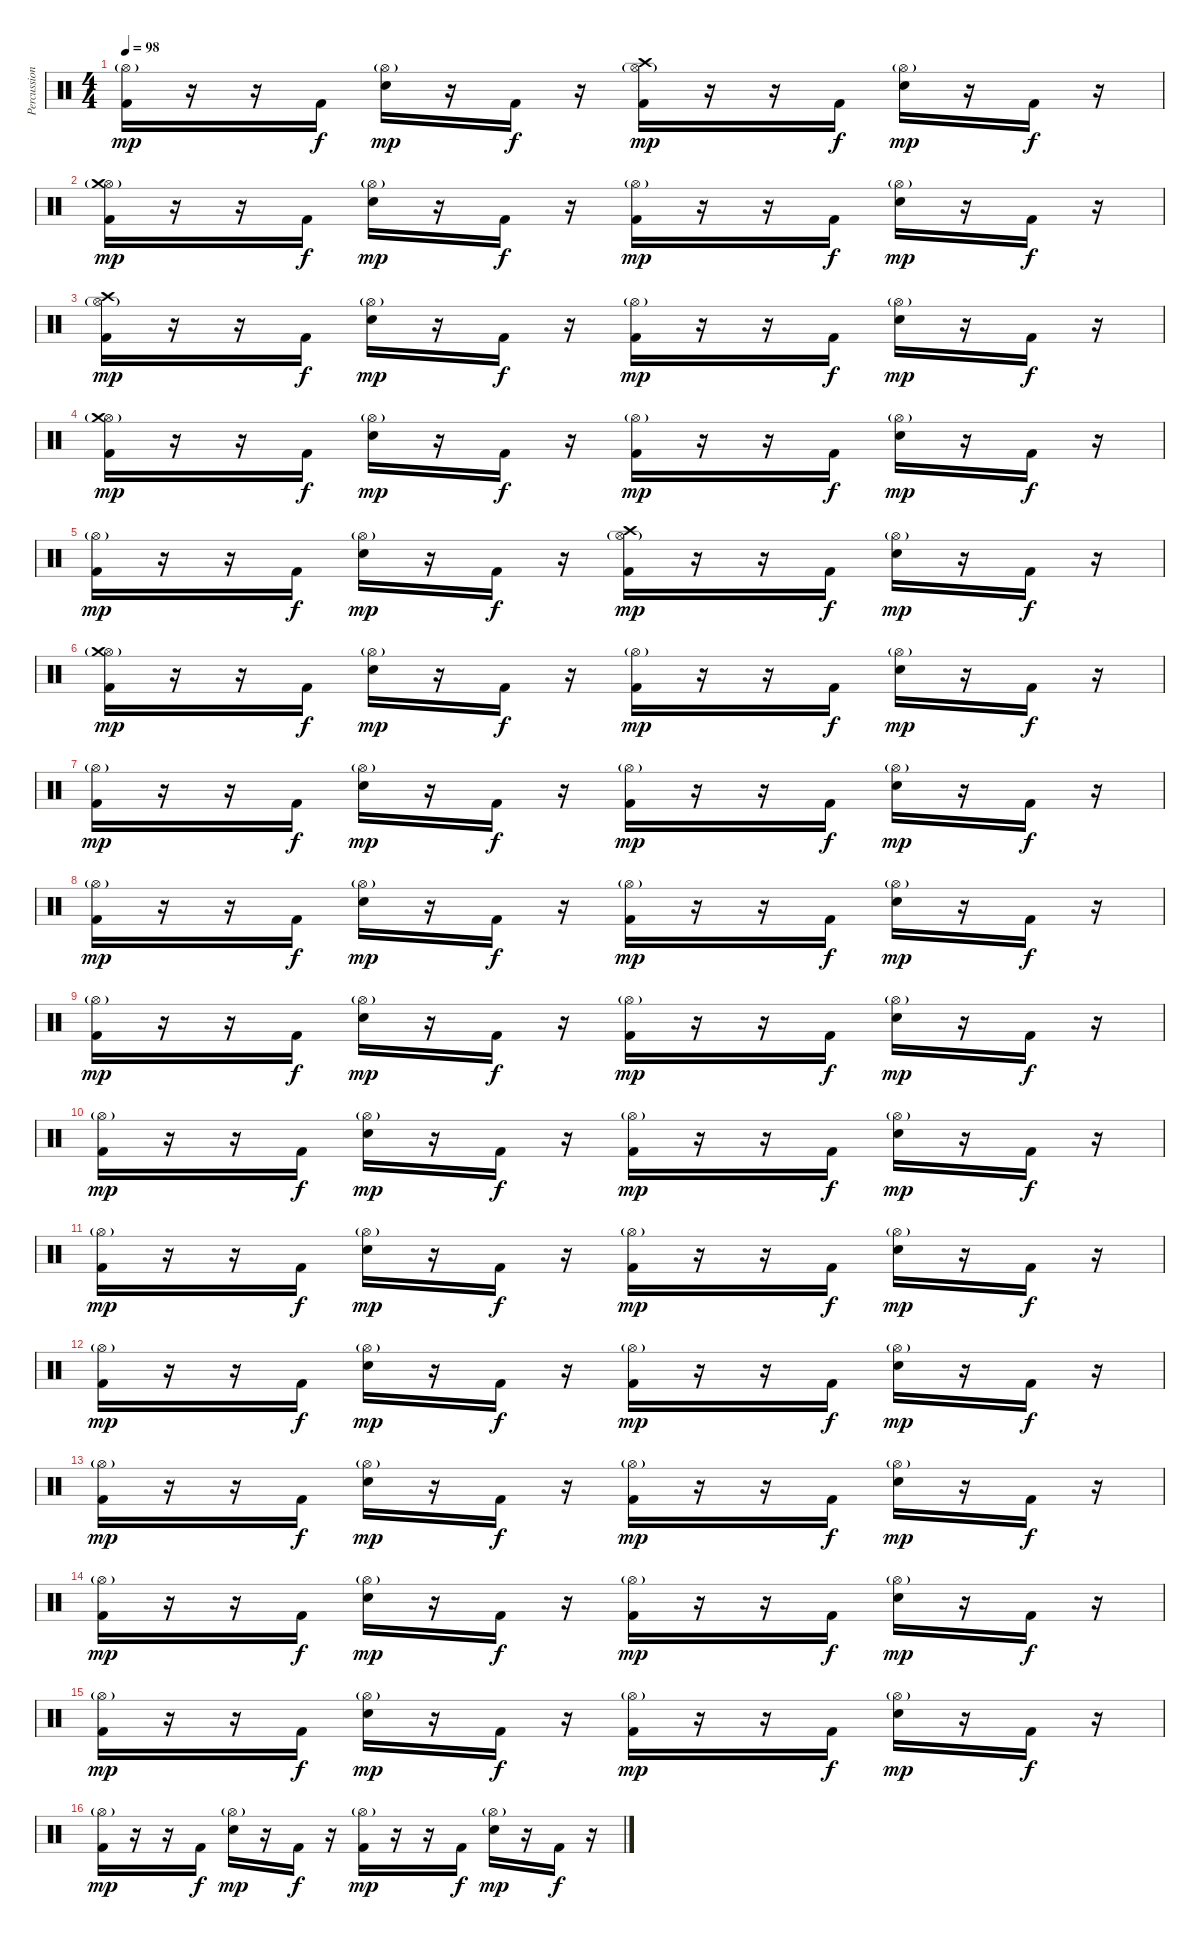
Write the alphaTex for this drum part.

\track ("Percussions" "Percussion") {instrument percussion}
\staff {score}
\articulation defaults
\ts (4 4)
\tempo 98
\clef neutral
\ks c
("Hi-Hat (open)"{g} "Kick (hit) 2").16{dy mp} r.16 r.16 "Kick (hit) 2".16{dy f} ("Hi-Hat (open)"{g} "Snare (hit) 2").16{dy mp} r.16 "Kick (hit) 2".16{dy f} r.16 ("Hi-Hat (open)"{g} "Crash high (hit)" "Kick (hit) 2").16{dy mp} r.16 r.16 "Kick (hit) 2".16{dy f} ("Hi-Hat (open)"{g} "Snare (hit) 2").16{dy mp} r.16 "Kick (hit) 2".16{dy f} r.16 |
("Hi-Hat (open)"{g} "Crash medium (hit)" "Kick (hit) 2").16{dy mp} r.16 r.16 "Kick (hit) 2".16{dy f} ("Hi-Hat (open)"{g} "Snare (hit) 2").16{dy mp} r.16 "Kick (hit) 2".16{dy f} r.16 ("Hi-Hat (open)"{g} "Kick (hit) 2").16{dy mp} r.16 r.16 "Kick (hit) 2".16{dy f} ("Hi-Hat (open)"{g} "Snare (hit) 2").16{dy mp} r.16 "Kick (hit) 2".16{dy f} r.16 |
("Hi-Hat (open)"{g} "Crash high (hit)" "Kick (hit) 2").16{dy mp} r.16 r.16 "Kick (hit) 2".16{dy f} ("Hi-Hat (open)"{g} "Snare (hit) 2").16{dy mp} r.16 "Kick (hit) 2".16{dy f} r.16 ("Hi-Hat (open)"{g} "Kick (hit) 2").16{dy mp} r.16 r.16 "Kick (hit) 2".16{dy f} ("Hi-Hat (open)"{g} "Snare (hit) 2").16{dy mp} r.16 "Kick (hit) 2".16{dy f} r.16 |
("Hi-Hat (open)"{g} "Crash medium (hit)" "Kick (hit) 2").16{dy mp} r.16 r.16 "Kick (hit) 2".16{dy f} ("Hi-Hat (open)"{g} "Snare (hit) 2").16{dy mp} r.16 "Kick (hit) 2".16{dy f} r.16 ("Hi-Hat (open)"{g} "Kick (hit) 2").16{dy mp} r.16 r.16 "Kick (hit) 2".16{dy f} ("Hi-Hat (open)"{g} "Snare (hit) 2").16{dy mp} r.16 "Kick (hit) 2".16{dy f} r.16 |
("Hi-Hat (open)"{g} "Kick (hit) 2").16{dy mp} r.16 r.16 "Kick (hit) 2".16{dy f} ("Hi-Hat (open)"{g} "Snare (hit) 2").16{dy mp} r.16 "Kick (hit) 2".16{dy f} r.16 ("Hi-Hat (open)"{g} "Crash high (hit)" "Kick (hit) 2").16{dy mp} r.16 r.16 "Kick (hit) 2".16{dy f} ("Hi-Hat (open)"{g} "Snare (hit) 2").16{dy mp} r.16 "Kick (hit) 2".16{dy f} r.16 |
("Hi-Hat (open)"{g} "Crash medium (hit)" "Kick (hit) 2").16{dy mp} r.16 r.16 "Kick (hit) 2".16{dy f} ("Hi-Hat (open)"{g} "Snare (hit) 2").16{dy mp} r.16 "Kick (hit) 2".16{dy f} r.16 ("Hi-Hat (open)"{g} "Kick (hit) 2").16{dy mp} r.16 r.16 "Kick (hit) 2".16{dy f} ("Hi-Hat (open)"{g} "Snare (hit) 2").16{dy mp} r.16 "Kick (hit) 2".16{dy f} r.16 |
("Hi-Hat (open)"{g} "Kick (hit) 2").16{dy mp} r.16 r.16 "Kick (hit) 2".16{dy f} ("Hi-Hat (open)"{g} "Snare (hit) 2").16{dy mp} r.16 "Kick (hit) 2".16{dy f} r.16 ("Hi-Hat (open)"{g} "Kick (hit) 2").16{dy mp} r.16 r.16 "Kick (hit) 2".16{dy f} ("Hi-Hat (open)"{g} "Snare (hit) 2").16{dy mp} r.16 "Kick (hit) 2".16{dy f} r.16 |
("Hi-Hat (open)"{g} "Kick (hit) 2").16{dy mp} r.16 r.16 "Kick (hit) 2".16{dy f} ("Hi-Hat (open)"{g} "Snare (hit) 2").16{dy mp} r.16 "Kick (hit) 2".16{dy f} r.16 ("Hi-Hat (open)"{g} "Kick (hit) 2").16{dy mp} r.16 r.16 "Kick (hit) 2".16{dy f} ("Hi-Hat (open)"{g} "Snare (hit) 2").16{dy mp} r.16 "Kick (hit) 2".16{dy f} r.16 |
("Hi-Hat (open)"{g} "Kick (hit) 2").16{dy mp} r.16 r.16 "Kick (hit) 2".16{dy f} ("Hi-Hat (open)"{g} "Snare (hit) 2").16{dy mp} r.16 "Kick (hit) 2".16{dy f} r.16 ("Hi-Hat (open)"{g} "Kick (hit) 2").16{dy mp} r.16 r.16 "Kick (hit) 2".16{dy f} ("Hi-Hat (open)"{g} "Snare (hit) 2").16{dy mp} r.16 "Kick (hit) 2".16{dy f} r.16 |
("Hi-Hat (open)"{g} "Kick (hit) 2").16{dy mp} r.16 r.16 "Kick (hit) 2".16{dy f} ("Hi-Hat (open)"{g} "Snare (hit) 2").16{dy mp} r.16 "Kick (hit) 2".16{dy f} r.16 ("Hi-Hat (open)"{g} "Kick (hit) 2").16{dy mp} r.16 r.16 "Kick (hit) 2".16{dy f} ("Hi-Hat (open)"{g} "Snare (hit) 2").16{dy mp} r.16 "Kick (hit) 2".16{dy f} r.16 |
("Hi-Hat (open)"{g} "Kick (hit) 2").16{dy mp} r.16 r.16 "Kick (hit) 2".16{dy f} ("Hi-Hat (open)"{g} "Snare (hit) 2").16{dy mp} r.16 "Kick (hit) 2".16{dy f} r.16 ("Hi-Hat (open)"{g} "Kick (hit) 2").16{dy mp} r.16 r.16 "Kick (hit) 2".16{dy f} ("Hi-Hat (open)"{g} "Snare (hit) 2").16{dy mp} r.16 "Kick (hit) 2".16{dy f} r.16 |
("Hi-Hat (open)"{g} "Kick (hit) 2").16{dy mp} r.16 r.16 "Kick (hit) 2".16{dy f} ("Hi-Hat (open)"{g} "Snare (hit) 2").16{dy mp} r.16 "Kick (hit) 2".16{dy f} r.16 ("Hi-Hat (open)"{g} "Kick (hit) 2").16{dy mp} r.16 r.16 "Kick (hit) 2".16{dy f} ("Hi-Hat (open)"{g} "Snare (hit) 2").16{dy mp} r.16 "Kick (hit) 2".16{dy f} r.16 |
("Hi-Hat (open)"{g} "Kick (hit) 2").16{dy mp} r.16 r.16 "Kick (hit) 2".16{dy f} ("Hi-Hat (open)"{g} "Snare (hit) 2").16{dy mp} r.16 "Kick (hit) 2".16{dy f} r.16 ("Hi-Hat (open)"{g} "Kick (hit) 2").16{dy mp} r.16 r.16 "Kick (hit) 2".16{dy f} ("Hi-Hat (open)"{g} "Snare (hit) 2").16{dy mp} r.16 "Kick (hit) 2".16{dy f} r.16 |
("Hi-Hat (open)"{g} "Kick (hit) 2").16{dy mp} r.16 r.16 "Kick (hit) 2".16{dy f} ("Hi-Hat (open)"{g} "Snare (hit) 2").16{dy mp} r.16 "Kick (hit) 2".16{dy f} r.16 ("Hi-Hat (open)"{g} "Kick (hit) 2").16{dy mp} r.16 r.16 "Kick (hit) 2".16{dy f} ("Hi-Hat (open)"{g} "Snare (hit) 2").16{dy mp} r.16 "Kick (hit) 2".16{dy f} r.16 |
("Hi-Hat (open)"{g} "Kick (hit) 2").16{dy mp} r.16 r.16 "Kick (hit) 2".16{dy f} ("Hi-Hat (open)"{g} "Snare (hit) 2").16{dy mp} r.16 "Kick (hit) 2".16{dy f} r.16 ("Hi-Hat (open)"{g} "Kick (hit) 2").16{dy mp} r.16 r.16 "Kick (hit) 2".16{dy f} ("Hi-Hat (open)"{g} "Snare (hit) 2").16{dy mp} r.16 "Kick (hit) 2".16{dy f} r.16 |
("Hi-Hat (open)"{g} "Kick (hit) 2").16{dy mp} r.16 r.16 "Kick (hit) 2".16{dy f} ("Hi-Hat (open)"{g} "Snare (hit) 2").16{dy mp} r.16 "Kick (hit) 2".16{dy f} r.16 ("Hi-Hat (open)"{g} "Kick (hit) 2").16{dy mp} r.16 r.16 "Kick (hit) 2".16{dy f} ("Hi-Hat (open)"{g} "Snare (hit) 2").16{dy mp} r.16 "Kick (hit) 2".16{dy f} r.16
